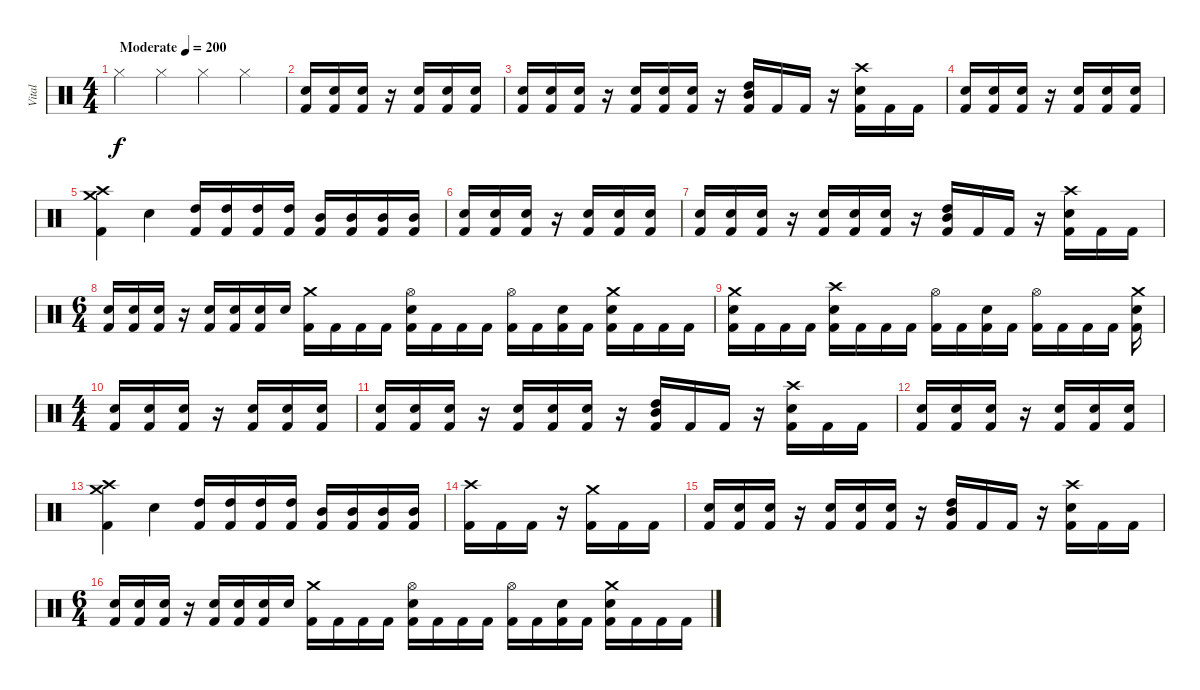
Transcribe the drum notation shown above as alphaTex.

\track ("Vital" "Vital") {instrument percussion}
\staff {score}
\articulation defaults
\ts (4 4)
\tempo (200 "Moderate")
\clef neutral
\ks c "Hi-Hat (closed)".4{dy f} "Hi-Hat (closed)".4 "Hi-Hat (closed)".4 "Hi-Hat (closed)".4
|
("Snare (hit) 2" "Kick (hit) 2").16 ("Snare (hit) 2" "Kick (hit) 2").16 ("Snare (hit) 2" "Kick (hit) 2").16 r.16 ("Snare (hit) 2" "Kick (hit) 2").16 ("Snare (hit) 2" "Kick (hit) 2").16 ("Snare (hit) 2" "Kick (hit) 2").16 |
("Snare (hit) 2" "Kick (hit) 2").16 ("Snare (hit) 2" "Kick (hit) 2").16 ("Snare (hit) 2" "Kick (hit) 2").16 r.16 ("Snare (hit) 2" "Kick (hit) 2").16 ("Snare (hit) 2" "Kick (hit) 2").16 ("Snare (hit) 2" "Kick (hit) 2").16 r.16 ("Mid Tom (hit)" "High Tom (hit)" "Kick (hit) 2").16 "Kick (hit) 2".16 "Kick (hit) 2".16 r.16 ("Crash high (hit)" "Snare (hit) 2" "Kick (hit) 2").16 "Kick (hit) 2".16 "Kick (hit) 2".16 |
("Snare (hit) 2" "Kick (hit) 2").16 ("Snare (hit) 2" "Kick (hit) 2").16 ("Snare (hit) 2" "Kick (hit) 2").16 r.16 ("Snare (hit) 2" "Kick (hit) 2").16 ("Snare (hit) 2" "Kick (hit) 2").16 ("Snare (hit) 2" "Kick (hit) 2").16 |
("Crash medium (hit)" "Crash high (hit)" "Kick (hit) 2").4 "Snare (hit)".4 ("High Tom (hit)" "Kick (hit) 2").16 ("High Tom (hit)" "Kick (hit) 2").16 ("High Tom (hit)" "Kick (hit) 2").16 ("High Tom (hit)" "Kick (hit) 2").16 ("Mid Tom (hit)" "Kick (hit) 2").16 ("Mid Tom (hit)" "Kick (hit) 2").16 ("Mid Tom (hit)" "Kick (hit) 2").16 ("Mid Tom (hit)" "Kick (hit) 2").16 |
("Snare (hit) 2" "Kick (hit) 2").16 ("Snare (hit) 2" "Kick (hit) 2").16 ("Snare (hit) 2" "Kick (hit) 2").16 r.16 ("Snare (hit) 2" "Kick (hit) 2").16 ("Snare (hit) 2" "Kick (hit) 2").16 ("Snare (hit) 2" "Kick (hit) 2").16 |
("Snare (hit) 2" "Kick (hit) 2").16 ("Snare (hit) 2" "Kick (hit) 2").16 ("Snare (hit) 2" "Kick (hit) 2").16 r.16 ("Snare (hit) 2" "Kick (hit) 2").16 ("Snare (hit) 2" "Kick (hit) 2").16 ("Snare (hit) 2" "Kick (hit) 2").16 r.16 ("Mid Tom (hit)" "High Tom (hit)" "Kick (hit) 2").16 "Kick (hit) 2".16 "Kick (hit) 2".16 r.16 ("Crash high (hit)" "Snare (hit) 2" "Kick (hit) 2").16 "Kick (hit) 2".16 "Kick (hit) 2".16 |
\ts (6 4)
("Snare (hit) 2" "Kick (hit) 2").16 ("Snare (hit) 2" "Kick (hit) 2").16 ("Snare (hit) 2" "Kick (hit) 2").16 r.16 ("Snare (hit) 2" "Kick (hit) 2").16 ("Snare (hit) 2" "Kick (hit) 2").16 ("Snare (hit) 2" "Kick (hit) 2").16 "Snare (hit)".16 ("Crash medium (hit)" "Kick (hit) 2").16 "Kick (hit) 2".16 "Kick (hit) 2".16 "Kick (hit) 2".16 ("Hi-Hat (open)" "Snare (hit) 2" "Kick (hit) 2").16 "Kick (hit) 2".16 "Kick (hit) 2".16 "Kick (hit) 2".16 ("Hi-Hat (open)" "Kick (hit) 2").16 "Kick (hit) 2".16 ("Snare (hit) 2" "Kick (hit) 2").16 "Kick (hit) 2".16 ("Crash medium (hit)" "Snare (hit) 2" "Kick (hit) 2").16 "Kick (hit) 2".16 "Kick (hit) 2".16 "Kick (hit) 2".16 |
("Crash medium (hit)" "Snare (hit) 2" "Kick (hit) 2").16 "Kick (hit) 2".16 "Kick (hit) 2".16 "Kick (hit) 2".16 ("Crash high (hit)" "Snare (hit) 2" "Kick (hit) 2").16 "Kick (hit) 2".16 "Kick (hit) 2".16 "Kick (hit) 2".16 ("Hi-Hat (open)" "Kick (hit) 2").16 "Kick (hit) 2".16 ("Snare (hit) 2" "Kick (hit) 2").16 "Kick (hit) 2".16 ("Hi-Hat (open)" "Kick (hit) 2").16 "Kick (hit) 2".16 "Kick (hit) 2".16 "Kick (hit) 2".16 ("Crash medium (hit)" "Snare (hit) 2" "Kick (hit) 2").16 |
\ts (4 4)
("Snare (hit) 2" "Kick (hit) 2").16 ("Snare (hit) 2" "Kick (hit) 2").16 ("Snare (hit) 2" "Kick (hit) 2").16 r.16 ("Snare (hit) 2" "Kick (hit) 2").16 ("Snare (hit) 2" "Kick (hit) 2").16 ("Snare (hit) 2" "Kick (hit) 2").16 |
("Snare (hit) 2" "Kick (hit) 2").16 ("Snare (hit) 2" "Kick (hit) 2").16 ("Snare (hit) 2" "Kick (hit) 2").16 r.16 ("Snare (hit) 2" "Kick (hit) 2").16 ("Snare (hit) 2" "Kick (hit) 2").16 ("Snare (hit) 2" "Kick (hit) 2").16 r.16 ("Mid Tom (hit)" "High Tom (hit)" "Kick (hit) 2").16 "Kick (hit) 2".16 "Kick (hit) 2".16 r.16 ("Crash high (hit)" "Snare (hit) 2" "Kick (hit) 2").16 "Kick (hit) 2".16 "Kick (hit) 2".16 |
("Snare (hit) 2" "Kick (hit) 2").16 ("Snare (hit) 2" "Kick (hit) 2").16 ("Snare (hit) 2" "Kick (hit) 2").16 r.16 ("Snare (hit) 2" "Kick (hit) 2").16 ("Snare (hit) 2" "Kick (hit) 2").16 ("Snare (hit) 2" "Kick (hit) 2").16 |
("Crash medium (hit)" "Crash high (hit)" "Kick (hit) 2").4 "Snare (hit)".4 ("High Tom (hit)" "Kick (hit) 2").16 ("High Tom (hit)" "Kick (hit) 2").16 ("High Tom (hit)" "Kick (hit) 2").16 ("High Tom (hit)" "Kick (hit) 2").16 ("Mid Tom (hit)" "Kick (hit) 2").16 ("Mid Tom (hit)" "Kick (hit) 2").16 ("Mid Tom (hit)" "Kick (hit) 2").16 ("Mid Tom (hit)" "Kick (hit) 2").16 |
("Crash high (hit)" "Kick (hit) 2").16 "Kick (hit) 2".16 "Kick (hit) 2".16 r.16 ("Crash medium (hit)" "Kick (hit) 2").16 "Kick (hit) 2".16 "Kick (hit) 2".16 |
("Snare (hit) 2" "Kick (hit) 2").16 ("Snare (hit) 2" "Kick (hit) 2").16 ("Snare (hit) 2" "Kick (hit) 2").16 r.16 ("Snare (hit) 2" "Kick (hit) 2").16 ("Snare (hit) 2" "Kick (hit) 2").16 ("Snare (hit) 2" "Kick (hit) 2").16 r.16 ("Mid Tom (hit)" "High Tom (hit)" "Kick (hit) 2").16 "Kick (hit) 2".16 "Kick (hit) 2".16 r.16 ("Crash high (hit)" "Snare (hit) 2" "Kick (hit) 2").16 "Kick (hit) 2".16 "Kick (hit) 2".16 |
\ts (6 4)
("Snare (hit) 2" "Kick (hit) 2").16 ("Snare (hit) 2" "Kick (hit) 2").16 ("Snare (hit) 2" "Kick (hit) 2").16 r.16 ("Snare (hit) 2" "Kick (hit) 2").16 ("Snare (hit) 2" "Kick (hit) 2").16 ("Snare (hit) 2" "Kick (hit) 2").16 "Snare (hit)".16 ("Crash medium (hit)" "Kick (hit) 2").16 "Kick (hit) 2".16 "Kick (hit) 2".16 "Kick (hit) 2".16 ("Hi-Hat (open)" "Snare (hit) 2" "Kick (hit) 2").16 "Kick (hit) 2".16 "Kick (hit) 2".16 "Kick (hit) 2".16 ("Hi-Hat (open)" "Kick (hit) 2").16 "Kick (hit) 2".16 ("Snare (hit) 2" "Kick (hit) 2").16 "Kick (hit) 2".16 ("Crash medium (hit)" "Snare (hit) 2" "Kick (hit) 2").16 "Kick (hit) 2".16 "Kick (hit) 2".16 "Kick (hit) 2".16
